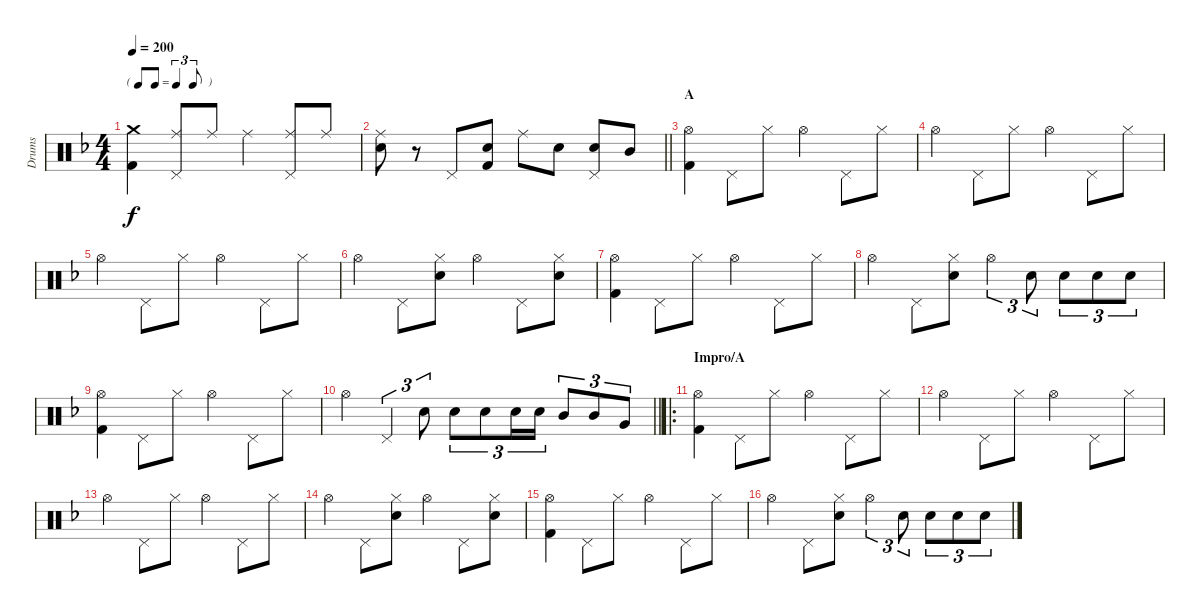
\track ("Drums" "Drums") {instrument percussion}
\staff {score}
\articulation defaults
\ts (4 4)
\tf triplet8th
\tempo 200
\clef neutral
\ks f
("Crash medium (hit)" "Kick (hit) 2").4{dy f} ("Ride (middle)" "Pedal Hi-Hat (hit)").8 "Ride (middle)".8 "Ride (middle)".4 ("Ride (middle)" "Pedal Hi-Hat (hit)").8 "Ride (middle)".8 |
\barLineRight lightlight
("Ride (middle)" "Snare (hit) 2").8 r.8 "Pedal Hi-Hat (hit)".8 ("Snare (hit) 2" "Kick (hit) 2").8 "Ride (middle)".8 "Snare (hit) 2".8 ("Pedal Hi-Hat (hit)" "Snare (hit) 2").8 "Mid Tom (hit)".8 |
\section ("" "A")
("Hi-Hat (open)" "Kick (hit) 2").4 "Pedal Hi-Hat (hit)".8 "Hi-Hat (closed)".8 "Hi-Hat (open)".4 "Pedal Hi-Hat (hit)".8 "Hi-Hat (closed)".8 |
"Hi-Hat (open)".4 "Pedal Hi-Hat (hit)".8 "Hi-Hat (closed)".8 "Hi-Hat (open)".4 "Pedal Hi-Hat (hit)".8 "Hi-Hat (closed)".8 |
"Hi-Hat (open)".4 "Pedal Hi-Hat (hit)".8 "Hi-Hat (closed)".8 "Hi-Hat (open)".4 "Pedal Hi-Hat (hit)".8 "Hi-Hat (closed)".8 |
"Hi-Hat (open)".4 "Pedal Hi-Hat (hit)".8 ("Hi-Hat (closed)" "Snare (hit) 2").8 "Hi-Hat (open)".4 "Pedal Hi-Hat (hit)".8 ("Hi-Hat (closed)" "Snare (hit) 2").8 |
("Hi-Hat (open)" "Kick (hit) 2").4 "Pedal Hi-Hat (hit)".8 "Hi-Hat (closed)".8 "Hi-Hat (open)".4 "Pedal Hi-Hat (hit)".8 "Hi-Hat (closed)".8 |
"Hi-Hat (open)".4 "Pedal Hi-Hat (hit)".8 ("Hi-Hat (closed)" "Snare (hit) 2").8 "Hi-Hat (open)".4{tu (3 2)} "Snare (hit) 2".8{tu (3 2)} "Snare (hit) 2".8{tu (3 2)} "Snare (hit) 2".8{tu (3 2)} "Snare (hit) 2".8{tu (3 2)} |
("Hi-Hat (open)" "Kick (hit) 2").4 "Pedal Hi-Hat (hit)".8 "Hi-Hat (closed)".8 "Hi-Hat (open)".4 "Pedal Hi-Hat (hit)".8 "Hi-Hat (closed)".8 |
\barLineRight lightlight "Hi-Hat (open)".4 "Pedal Hi-Hat (hit)".4{tu (3 2)} "Snare (hit) 2".8{tu (3 2)} "Snare (hit) 2".8{tu (3 2)} "Snare (hit) 2".8{tu (3 2)} "Snare (hit) 2".16{tu (3 2)} "Snare (hit) 2".16{tu (3 2)} "Mid Tom (hit)".8{tu (3 2)} "Mid Tom (hit)".8{tu (3 2)} "Very Low Tom (hit)".8{tu (3 2)}
|
\ro
\section ("" "Impro/A")
("Hi-Hat (open)" "Kick (hit) 2").4 "Pedal Hi-Hat (hit)".8 "Hi-Hat (closed)".8 "Hi-Hat (open)".4 "Pedal Hi-Hat (hit)".8 "Hi-Hat (closed)".8 |
"Hi-Hat (open)".4 "Pedal Hi-Hat (hit)".8 "Hi-Hat (closed)".8 "Hi-Hat (open)".4 "Pedal Hi-Hat (hit)".8 "Hi-Hat (closed)".8 |
"Hi-Hat (open)".4 "Pedal Hi-Hat (hit)".8 "Hi-Hat (closed)".8 "Hi-Hat (open)".4 "Pedal Hi-Hat (hit)".8 "Hi-Hat (closed)".8 |
"Hi-Hat (open)".4 "Pedal Hi-Hat (hit)".8 ("Hi-Hat (closed)" "Snare (hit) 2").8 "Hi-Hat (open)".4 "Pedal Hi-Hat (hit)".8 ("Hi-Hat (closed)" "Snare (hit) 2").8 |
("Hi-Hat (open)" "Kick (hit) 2").4 "Pedal Hi-Hat (hit)".8 "Hi-Hat (closed)".8 "Hi-Hat (open)".4 "Pedal Hi-Hat (hit)".8 "Hi-Hat (closed)".8 |
"Hi-Hat (open)".4 "Pedal Hi-Hat (hit)".8 ("Hi-Hat (closed)" "Snare (hit) 2").8 "Hi-Hat (open)".4{tu (3 2)} "Snare (hit) 2".8{tu (3 2)} "Snare (hit) 2".8{tu (3 2)} "Snare (hit) 2".8{tu (3 2)} "Snare (hit) 2".8{tu (3 2)}
